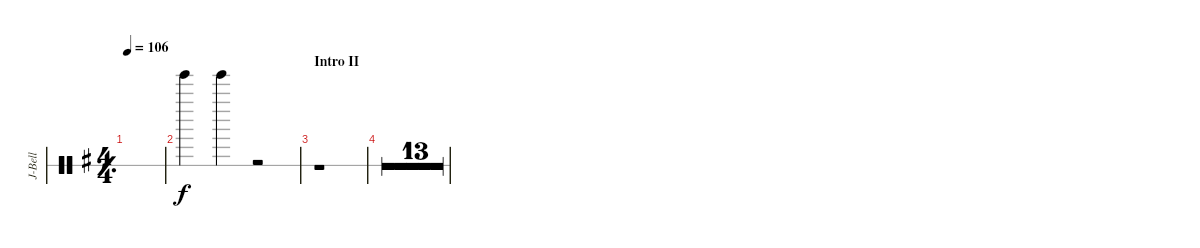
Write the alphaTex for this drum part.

\defaultSystemsLayout 4
\bracketExtendMode groupsimilarinstruments
\otherSystemsTrackNameOrientation horizontal
\track ("Jingle Bell" "J-Bell") {multiBarRest instrument percussion}
\staff {score 1}
\articulation defaults
\ts (4 4)
\tempo 106
\clef neutral
\simile simple
\ks g
|
\simile none "Jingle Bell (hit)"{acc forcenatural}.4 "Jingle Bell (hit)"{acc forcenatural}.4
r.2 |
\section ("" "Intro II")
r.1 |
r.1 |
r.1 |
r.1 |
r.1 |
r.1 |
r.1 |
r.1 |
r.1 |
r.1 |
r.1 |
r.1 |
r.1 |
r.1
